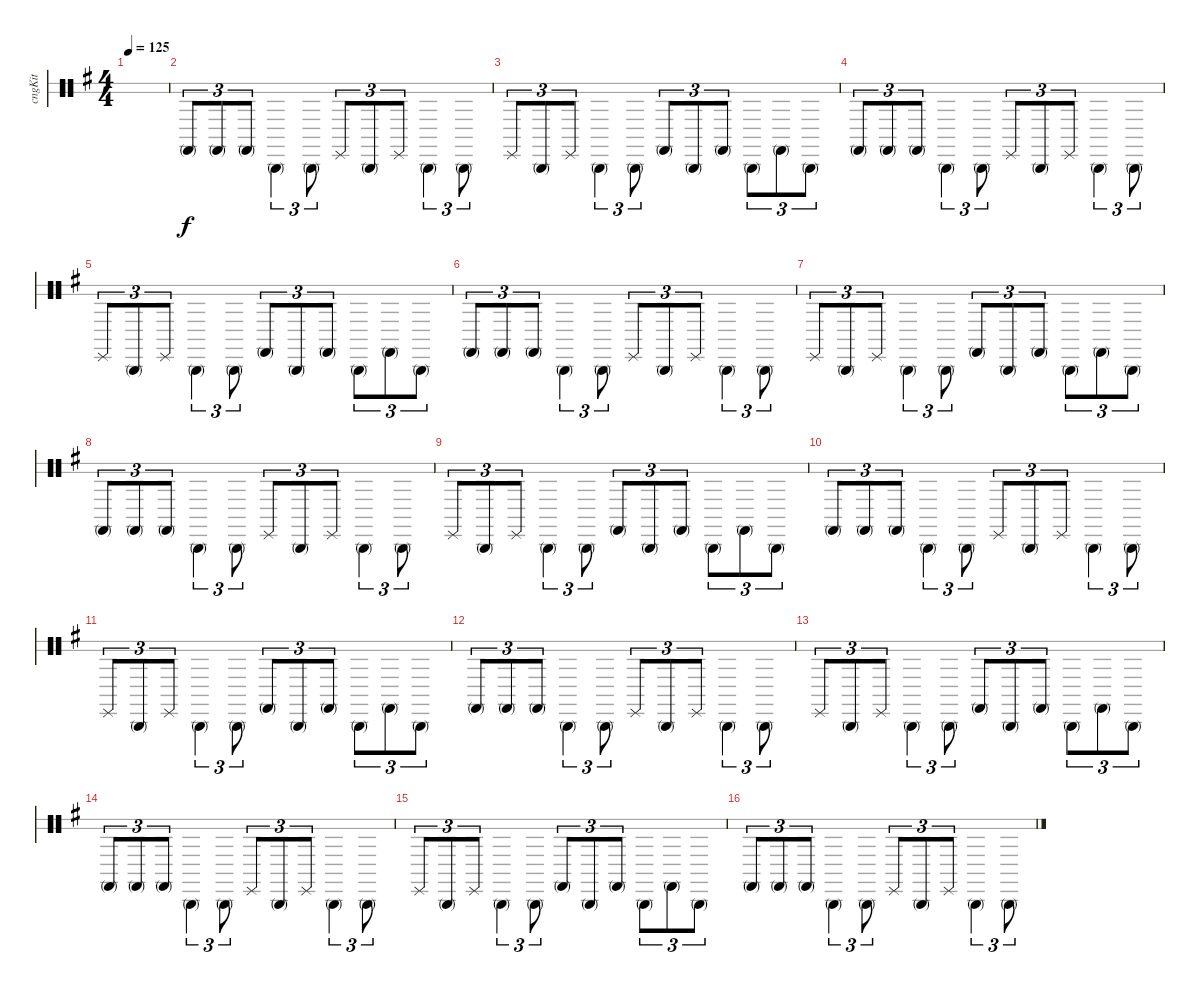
\defaultSystemsLayout 4
\bracketExtendMode groupsimilarinstruments
\otherSystemsTrackNameOrientation horizontal
\track ("Congas" "cngKit") {instrument percussion}
\staff {score 2}
\articulation defaults
\ts (4 4)
\tempo 125
\clef neutral
\scale
0.474178
\ks g
|
\scale
0.262911 "Conga low (mute)"{acc forcenatural}.8{tu (3 2) beam Up} "Conga low (mute)"{acc forcenatural}.8{tu (3 2) beam Up} "Conga low (mute)"{acc forcenatural}.8{tu (3 2) beam Up} "Conga high (mute)"{acc forcenatural}.4{tu (3 2) beam Down} "Conga high (mute)"{acc forcenatural}.8{tu (3 2) beam Down} "Conga low (slap)"{acc forcenatural}.8{tu (3 2) beam Up} "Conga high (mute)"{acc forcenatural}.8{tu (3 2) beam Up} "Conga low (slap)"{acc forcenatural}.8{tu (3 2) beam Up} "Conga high (mute)"{acc forcenatural}.4{tu (3 2) beam Down} "Conga high (mute)"{acc forcenatural}.8{tu (3 2) beam Down} |
"Conga low (slap)"{acc forcenatural}.8{tu (3 2) beam Up} "Conga high (mute)"{acc forcenatural}.8{tu (3 2) beam Up} "Conga low (slap)"{acc forcenatural}.8{tu (3 2) beam Up} "Conga high (mute)"{acc forcenatural}.4{tu (3 2) beam Down} "Conga high (mute)"{acc forcenatural}.8{tu (3 2) beam Down} "Conga low (mute)"{acc forcenatural}.8{tu (3 2) beam Up} "Conga high (mute)"{acc forcenatural}.8{tu (3 2) beam Up} "Conga low (mute)"{acc forcenatural}.8{tu (3 2) beam Up} "Conga high (mute)"{acc forcenatural}.8{tu (3 2) beam Down} "Conga low (mute)"{acc forcenatural}.8{tu (3 2) beam Down} "Conga high (mute)"{acc forcenatural}.8{tu (3 2) beam Down} |
"Conga low (mute)"{acc forcenatural}.8{tu (3 2) beam Up} "Conga low (mute)"{acc forcenatural}.8{tu (3 2) beam Up} "Conga low (mute)"{acc forcenatural}.8{tu (3 2) beam Up} "Conga high (mute)"{acc forcenatural}.4{tu (3 2) beam Down} "Conga high (mute)"{acc forcenatural}.8{tu (3 2) beam Down} "Conga low (slap)"{acc forcenatural}.8{tu (3 2) beam Up} "Conga high (mute)"{acc forcenatural}.8{tu (3 2) beam Up} "Conga low (slap)"{acc forcenatural}.8{tu (3 2) beam Up} "Conga high (mute)"{acc forcenatural}.4{tu (3 2) beam Down} "Conga high (mute)"{acc forcenatural}.8{tu (3 2) beam Down} |
"Conga low (slap)"{acc forcenatural}.8{tu (3 2) beam Up} "Conga high (mute)"{acc forcenatural}.8{tu (3 2) beam Up} "Conga low (slap)"{acc forcenatural}.8{tu (3 2) beam Up} "Conga high (mute)"{acc forcenatural}.4{tu (3 2) beam Down} "Conga high (mute)"{acc forcenatural}.8{tu (3 2) beam Down} "Conga low (mute)"{acc forcenatural}.8{tu (3 2) beam Up} "Conga high (mute)"{acc forcenatural}.8{tu (3 2) beam Up} "Conga low (mute)"{acc forcenatural}.8{tu (3 2) beam Up} "Conga high (mute)"{acc forcenatural}.8{tu (3 2) beam Down} "Conga low (mute)"{acc forcenatural}.8{tu (3 2) beam Down} "Conga high (mute)"{acc forcenatural}.8{tu (3 2) beam Down} |
\scale
0.262911 "Conga low (mute)"{acc forcenatural}.8{tu (3 2) beam Up} "Conga low (mute)"{acc forcenatural}.8{tu (3 2) beam Up} "Conga low (mute)"{acc forcenatural}.8{tu (3 2) beam Up} "Conga high (mute)"{acc forcenatural}.4{tu (3 2) beam Down} "Conga high (mute)"{acc forcenatural}.8{tu (3 2) beam Down} "Conga low (slap)"{acc forcenatural}.8{tu (3 2) beam Up} "Conga high (mute)"{acc forcenatural}.8{tu (3 2) beam Up} "Conga low (slap)"{acc forcenatural}.8{tu (3 2) beam Up} "Conga high (mute)"{acc forcenatural}.4{tu (3 2) beam Down} "Conga high (mute)"{acc forcenatural}.8{tu (3 2) beam Down} |
\scale
0.333333 "Conga low (slap)"{acc forcenatural}.8{tu (3 2) beam Up} "Conga high (mute)"{acc forcenatural}.8{tu (3 2) beam Up} "Conga low (slap)"{acc forcenatural}.8{tu (3 2) beam Up} "Conga high (mute)"{acc forcenatural}.4{tu (3 2) beam Down} "Conga high (mute)"{acc forcenatural}.8{tu (3 2) beam Down} "Conga low (mute)"{acc forcenatural}.8{tu (3 2) beam Up} "Conga high (mute)"{acc forcenatural}.8{tu (3 2) beam Up} "Conga low (mute)"{acc forcenatural}.8{tu (3 2) beam Up} "Conga high (mute)"{acc forcenatural}.8{tu (3 2) beam Down} "Conga low (mute)"{acc forcenatural}.8{tu (3 2) beam Down} "Conga high (mute)"{acc forcenatural}.8{tu (3 2) beam Down} |
\scale
0.333333 "Conga low (mute)"{acc forcenatural}.8{tu (3 2) beam Up} "Conga low (mute)"{acc forcenatural}.8{tu (3 2) beam Up} "Conga low (mute)"{acc forcenatural}.8{tu (3 2) beam Up} "Conga high (mute)"{acc forcenatural}.4{tu (3 2) beam Down} "Conga high (mute)"{acc forcenatural}.8{tu (3 2) beam Down} "Conga low (slap)"{acc forcenatural}.8{tu (3 2) beam Up} "Conga high (mute)"{acc forcenatural}.8{tu (3 2) beam Up} "Conga low (slap)"{acc forcenatural}.8{tu (3 2) beam Up} "Conga high (mute)"{acc forcenatural}.4{tu (3 2) beam Down} "Conga high (mute)"{acc forcenatural}.8{tu (3 2) beam Down} |
"Conga low (slap)"{acc forcenatural}.8{tu (3 2) beam Up} "Conga high (mute)"{acc forcenatural}.8{tu (3 2) beam Up} "Conga low (slap)"{acc forcenatural}.8{tu (3 2) beam Up} "Conga high (mute)"{acc forcenatural}.4{tu (3 2) beam Down} "Conga high (mute)"{acc forcenatural}.8{tu (3 2) beam Down} "Conga low (mute)"{acc forcenatural}.8{tu (3 2) beam Up} "Conga high (mute)"{acc forcenatural}.8{tu (3 2) beam Up} "Conga low (mute)"{acc forcenatural}.8{tu (3 2) beam Up} "Conga high (mute)"{acc forcenatural}.8{tu (3 2) beam Down} "Conga low (mute)"{acc forcenatural}.8{tu (3 2) beam Down} "Conga high (mute)"{acc forcenatural}.8{tu (3 2) beam Down} |
\scale
0.333333 "Conga low (mute)"{acc forcenatural}.8{tu (3 2) beam Up} "Conga low (mute)"{acc forcenatural}.8{tu (3 2) beam Up} "Conga low (mute)"{acc forcenatural}.8{tu (3 2) beam Up} "Conga high (mute)"{acc forcenatural}.4{tu (3 2) beam Down} "Conga high (mute)"{acc forcenatural}.8{tu (3 2) beam Down} "Conga low (slap)"{acc forcenatural}.8{tu (3 2) beam Up} "Conga high (mute)"{acc forcenatural}.8{tu (3 2) beam Up} "Conga low (slap)"{acc forcenatural}.8{tu (3 2) beam Up} "Conga high (mute)"{acc forcenatural}.4{tu (3 2) beam Down} "Conga high (mute)"{acc forcenatural}.8{tu (3 2) beam Down} |
\scale
0.333333 "Conga low (slap)"{acc forcenatural}.8{tu (3 2) beam Up} "Conga high (mute)"{acc forcenatural}.8{tu (3 2) beam Up} "Conga low (slap)"{acc forcenatural}.8{tu (3 2) beam Up} "Conga high (mute)"{acc forcenatural}.4{tu (3 2) beam Down} "Conga high (mute)"{acc forcenatural}.8{tu (3 2) beam Down} "Conga low (mute)"{acc forcenatural}.8{tu (3 2) beam Up} "Conga high (mute)"{acc forcenatural}.8{tu (3 2) beam Up} "Conga low (mute)"{acc forcenatural}.8{tu (3 2) beam Up} "Conga high (mute)"{acc forcenatural}.8{tu (3 2) beam Down} "Conga low (mute)"{acc forcenatural}.8{tu (3 2) beam Down} "Conga high (mute)"{acc forcenatural}.8{tu (3 2) beam Down} |
\scale
0.333333 "Conga low (mute)"{acc forcenatural}.8{tu (3 2) beam Up} "Conga low (mute)"{acc forcenatural}.8{tu (3 2) beam Up} "Conga low (mute)"{acc forcenatural}.8{tu (3 2) beam Up} "Conga high (mute)"{acc forcenatural}.4{tu (3 2) beam Down} "Conga high (mute)"{acc forcenatural}.8{tu (3 2) beam Down} "Conga low (slap)"{acc forcenatural}.8{tu (3 2) beam Up} "Conga high (mute)"{acc forcenatural}.8{tu (3 2) beam Up} "Conga low (slap)"{acc forcenatural}.8{tu (3 2) beam Up} "Conga high (mute)"{acc forcenatural}.4{tu (3 2) beam Down} "Conga high (mute)"{acc forcenatural}.8{tu (3 2) beam Down} |
\scale
0.333333 "Conga low (slap)"{acc forcenatural}.8{tu (3 2) beam Up} "Conga high (mute)"{acc forcenatural}.8{tu (3 2) beam Up} "Conga low (slap)"{acc forcenatural}.8{tu (3 2) beam Up} "Conga high (mute)"{acc forcenatural}.4{tu (3 2) beam Down} "Conga high (mute)"{acc forcenatural}.8{tu (3 2) beam Down} "Conga low (mute)"{acc forcenatural}.8{tu (3 2) beam Up} "Conga high (mute)"{acc forcenatural}.8{tu (3 2) beam Up} "Conga low (mute)"{acc forcenatural}.8{tu (3 2) beam Up} "Conga high (mute)"{acc forcenatural}.8{tu (3 2) beam Down} "Conga low (mute)"{acc forcenatural}.8{tu (3 2) beam Down} "Conga high (mute)"{acc forcenatural}.8{tu (3 2) beam Down} |
\scale
0.333333 "Conga low (mute)"{acc forcenatural}.8{tu (3 2) beam Up} "Conga low (mute)"{acc forcenatural}.8{tu (3 2) beam Up} "Conga low (mute)"{acc forcenatural}.8{tu (3 2) beam Up} "Conga high (mute)"{acc forcenatural}.4{tu (3 2) beam Down} "Conga high (mute)"{acc forcenatural}.8{tu (3 2) beam Down} "Conga low (slap)"{acc forcenatural}.8{tu (3 2) beam Up} "Conga high (mute)"{acc forcenatural}.8{tu (3 2) beam Up} "Conga low (slap)"{acc forcenatural}.8{tu (3 2) beam Up} "Conga high (mute)"{acc forcenatural}.4{tu (3 2) beam Down} "Conga high (mute)"{acc forcenatural}.8{tu (3 2) beam Down} |
\scale
0.333333 "Conga low (slap)"{acc forcenatural}.8{tu (3 2) beam Up} "Conga high (mute)"{acc forcenatural}.8{tu (3 2) beam Up} "Conga low (slap)"{acc forcenatural}.8{tu (3 2) beam Up} "Conga high (mute)"{acc forcenatural}.4{tu (3 2) beam Down} "Conga high (mute)"{acc forcenatural}.8{tu (3 2) beam Down} "Conga low (mute)"{acc forcenatural}.8{tu (3 2) beam Up} "Conga high (mute)"{acc forcenatural}.8{tu (3 2) beam Up} "Conga low (mute)"{acc forcenatural}.8{tu (3 2) beam Up} "Conga high (mute)"{acc forcenatural}.8{tu (3 2) beam Down} "Conga low (mute)"{acc forcenatural}.8{tu (3 2) beam Down} "Conga high (mute)"{acc forcenatural}.8{tu (3 2) beam Down} |
\scale
0.333333 "Conga low (mute)"{acc forcenatural}.8{tu (3 2) beam Up} "Conga low (mute)"{acc forcenatural}.8{tu (3 2) beam Up} "Conga low (mute)"{acc forcenatural}.8{tu (3 2) beam Up} "Conga high (mute)"{acc forcenatural}.4{tu (3 2) beam Down} "Conga high (mute)"{acc forcenatural}.8{tu (3 2) beam Down} "Conga low (slap)"{acc forcenatural}.8{tu (3 2) beam Up} "Conga high (mute)"{acc forcenatural}.8{tu (3 2) beam Up} "Conga low (slap)"{acc forcenatural}.8{tu (3 2) beam Up} "Conga high (mute)"{acc forcenatural}.4{tu (3 2) beam Down} "Conga high (mute)"{acc forcenatural}.8{tu (3 2) beam Down}
